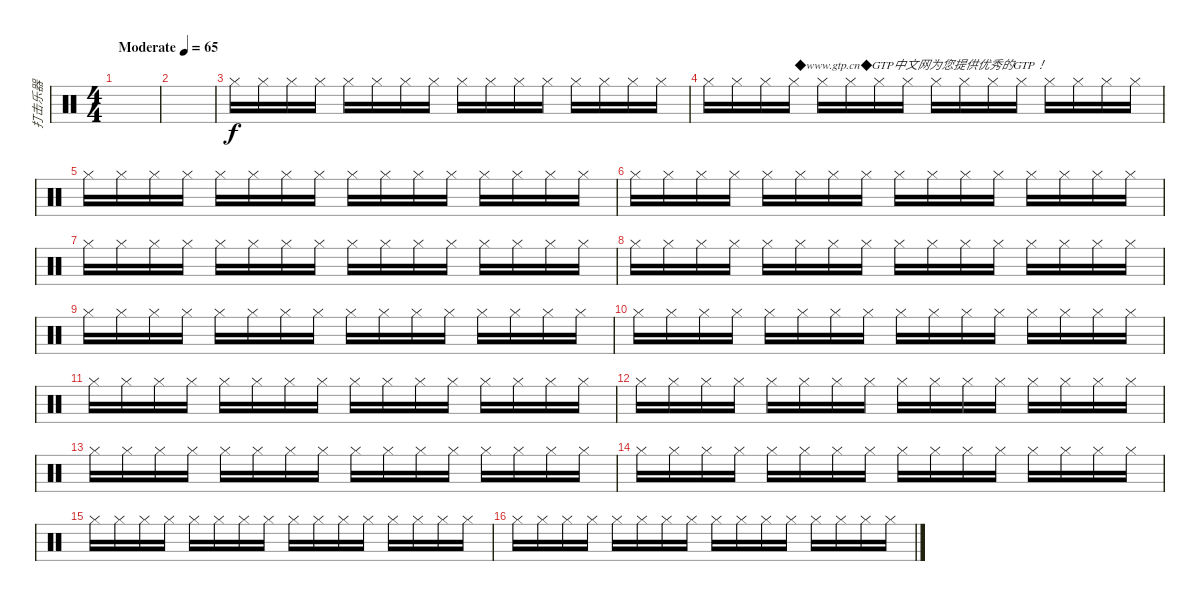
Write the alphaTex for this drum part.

\track ("打击乐器" "打击乐器") {instrument percussion}
\staff {score}
\articulation defaults
\ts (4 4)
\tempo (65 "Moderate")
\clef neutral
\ks c
|
|
"Hi-Hat (closed)".16{volume 9} "Hi-Hat (closed)".16 "Hi-Hat (closed)".16 "Hi-Hat (closed)".16 "Hi-Hat (closed)".16 "Hi-Hat (closed)".16 "Hi-Hat (closed)".16{volume 10} "Hi-Hat (closed)".16 "Hi-Hat (closed)".16 "Hi-Hat (closed)".16 "Hi-Hat (closed)".16 "Hi-Hat (closed)".16 "Hi-Hat (closed)".16 "Hi-Hat (closed)".16 "Hi-Hat (closed)".16 "Hi-Hat (closed)".16 |
"Hi-Hat (closed)".16{volume 9} "Hi-Hat (closed)".16 "Hi-Hat (closed)".16 "Hi-Hat (closed)".16{txt "◆www.gtp.cn◆GTP中文网为您提供优秀的GTP！"} "Hi-Hat (closed)".16 "Hi-Hat (closed)".16 "Hi-Hat (closed)".16{volume 10} "Hi-Hat (closed)".16 "Hi-Hat (closed)".16 "Hi-Hat (closed)".16 "Hi-Hat (closed)".16 "Hi-Hat (closed)".16 "Hi-Hat (closed)".16 "Hi-Hat (closed)".16 "Hi-Hat (closed)".16 "Hi-Hat (closed)".16 |
"Hi-Hat (closed)".16{volume 9} "Hi-Hat (closed)".16 "Hi-Hat (closed)".16 "Hi-Hat (closed)".16 "Hi-Hat (closed)".16 "Hi-Hat (closed)".16 "Hi-Hat (closed)".16{volume 10} "Hi-Hat (closed)".16 "Hi-Hat (closed)".16 "Hi-Hat (closed)".16 "Hi-Hat (closed)".16 "Hi-Hat (closed)".16 "Hi-Hat (closed)".16 "Hi-Hat (closed)".16 "Hi-Hat (closed)".16 "Hi-Hat (closed)".16 |
"Hi-Hat (closed)".16{volume 9} "Hi-Hat (closed)".16 "Hi-Hat (closed)".16 "Hi-Hat (closed)".16 "Hi-Hat (closed)".16 "Hi-Hat (closed)".16 "Hi-Hat (closed)".16{volume 10} "Hi-Hat (closed)".16 "Hi-Hat (closed)".16 "Hi-Hat (closed)".16 "Hi-Hat (closed)".16 "Hi-Hat (closed)".16 "Hi-Hat (closed)".16 "Hi-Hat (closed)".16 "Hi-Hat (closed)".16 "Hi-Hat (closed)".16 |
"Hi-Hat (closed)".16{volume 9} "Hi-Hat (closed)".16 "Hi-Hat (closed)".16 "Hi-Hat (closed)".16 "Hi-Hat (closed)".16 "Hi-Hat (closed)".16 "Hi-Hat (closed)".16{volume 10} "Hi-Hat (closed)".16 "Hi-Hat (closed)".16 "Hi-Hat (closed)".16 "Hi-Hat (closed)".16 "Hi-Hat (closed)".16 "Hi-Hat (closed)".16 "Hi-Hat (closed)".16 "Hi-Hat (closed)".16 "Hi-Hat (closed)".16 |
"Hi-Hat (closed)".16{volume 9} "Hi-Hat (closed)".16 "Hi-Hat (closed)".16 "Hi-Hat (closed)".16 "Hi-Hat (closed)".16 "Hi-Hat (closed)".16 "Hi-Hat (closed)".16{volume 10} "Hi-Hat (closed)".16 "Hi-Hat (closed)".16 "Hi-Hat (closed)".16 "Hi-Hat (closed)".16 "Hi-Hat (closed)".16 "Hi-Hat (closed)".16 "Hi-Hat (closed)".16 "Hi-Hat (closed)".16 "Hi-Hat (closed)".16 |
"Hi-Hat (closed)".16{volume 9} "Hi-Hat (closed)".16 "Hi-Hat (closed)".16 "Hi-Hat (closed)".16 "Hi-Hat (closed)".16 "Hi-Hat (closed)".16 "Hi-Hat (closed)".16{volume 10} "Hi-Hat (closed)".16 "Hi-Hat (closed)".16 "Hi-Hat (closed)".16 "Hi-Hat (closed)".16 "Hi-Hat (closed)".16 "Hi-Hat (closed)".16 "Hi-Hat (closed)".16 "Hi-Hat (closed)".16 "Hi-Hat (closed)".16 |
"Hi-Hat (closed)".16{volume 9} "Hi-Hat (closed)".16 "Hi-Hat (closed)".16 "Hi-Hat (closed)".16 "Hi-Hat (closed)".16 "Hi-Hat (closed)".16 "Hi-Hat (closed)".16{volume 10} "Hi-Hat (closed)".16 "Hi-Hat (closed)".16 "Hi-Hat (closed)".16 "Hi-Hat (closed)".16 "Hi-Hat (closed)".16 "Hi-Hat (closed)".16 "Hi-Hat (closed)".16 "Hi-Hat (closed)".16 "Hi-Hat (closed)".16 |
"Hi-Hat (closed)".16{volume 9} "Hi-Hat (closed)".16 "Hi-Hat (closed)".16 "Hi-Hat (closed)".16 "Hi-Hat (closed)".16 "Hi-Hat (closed)".16 "Hi-Hat (closed)".16{volume 10} "Hi-Hat (closed)".16 "Hi-Hat (closed)".16 "Hi-Hat (closed)".16 "Hi-Hat (closed)".16 "Hi-Hat (closed)".16 "Hi-Hat (closed)".16 "Hi-Hat (closed)".16 "Hi-Hat (closed)".16 "Hi-Hat (closed)".16 |
"Hi-Hat (closed)".16{volume 9} "Hi-Hat (closed)".16 "Hi-Hat (closed)".16 "Hi-Hat (closed)".16 "Hi-Hat (closed)".16 "Hi-Hat (closed)".16 "Hi-Hat (closed)".16{volume 10} "Hi-Hat (closed)".16 "Hi-Hat (closed)".16 "Hi-Hat (closed)".16 "Hi-Hat (closed)".16 "Hi-Hat (closed)".16 "Hi-Hat (closed)".16 "Hi-Hat (closed)".16 "Hi-Hat (closed)".16 "Hi-Hat (closed)".16 |
"Hi-Hat (closed)".16{volume 9} "Hi-Hat (closed)".16 "Hi-Hat (closed)".16 "Hi-Hat (closed)".16 "Hi-Hat (closed)".16 "Hi-Hat (closed)".16 "Hi-Hat (closed)".16{volume 10} "Hi-Hat (closed)".16 "Hi-Hat (closed)".16 "Hi-Hat (closed)".16 "Hi-Hat (closed)".16 "Hi-Hat (closed)".16 "Hi-Hat (closed)".16 "Hi-Hat (closed)".16 "Hi-Hat (closed)".16 "Hi-Hat (closed)".16 |
"Hi-Hat (closed)".16{volume 9} "Hi-Hat (closed)".16 "Hi-Hat (closed)".16 "Hi-Hat (closed)".16 "Hi-Hat (closed)".16 "Hi-Hat (closed)".16 "Hi-Hat (closed)".16{volume 10} "Hi-Hat (closed)".16 "Hi-Hat (closed)".16 "Hi-Hat (closed)".16 "Hi-Hat (closed)".16 "Hi-Hat (closed)".16 "Hi-Hat (closed)".16 "Hi-Hat (closed)".16 "Hi-Hat (closed)".16 "Hi-Hat (closed)".16 |
"Hi-Hat (closed)".16{volume 9} "Hi-Hat (closed)".16 "Hi-Hat (closed)".16 "Hi-Hat (closed)".16 "Hi-Hat (closed)".16 "Hi-Hat (closed)".16 "Hi-Hat (closed)".16{volume 10} "Hi-Hat (closed)".16 "Hi-Hat (closed)".16 "Hi-Hat (closed)".16 "Hi-Hat (closed)".16 "Hi-Hat (closed)".16 "Hi-Hat (closed)".16 "Hi-Hat (closed)".16 "Hi-Hat (closed)".16 "Hi-Hat (closed)".16 |
"Hi-Hat (closed)".16{volume 9} "Hi-Hat (closed)".16 "Hi-Hat (closed)".16 "Hi-Hat (closed)".16 "Hi-Hat (closed)".16 "Hi-Hat (closed)".16 "Hi-Hat (closed)".16{volume 10} "Hi-Hat (closed)".16 "Hi-Hat (closed)".16 "Hi-Hat (closed)".16 "Hi-Hat (closed)".16 "Hi-Hat (closed)".16 "Hi-Hat (closed)".16 "Hi-Hat (closed)".16 "Hi-Hat (closed)".16 "Hi-Hat (closed)".16
